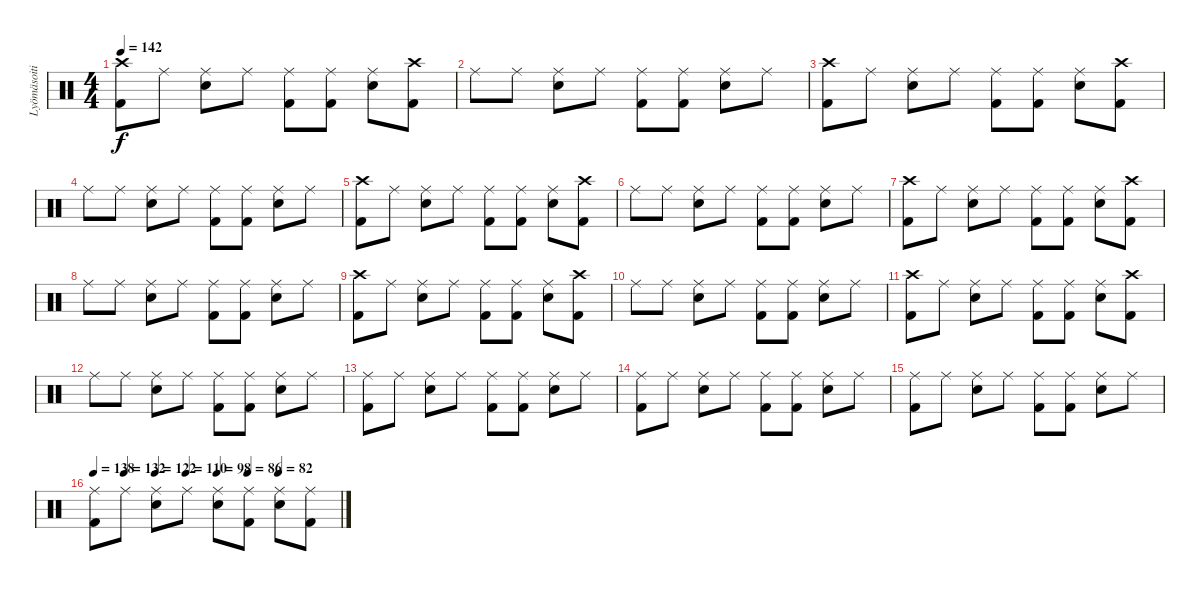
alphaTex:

\track ("Lyömäsoitin" "Lyömäsoiti") {instrument percussion}
\staff {score}
\articulation defaults
\ts (4 4)
\tempo 142
\clef neutral
\ks c
("Crash high (hit)" "Kick (hit) 2").8{dy f} "Ride (middle)".8 ("Ride (middle)" "Electric Snare (hit)").8 "Ride (middle)".8 ("Ride (middle)" "Kick (hit) 2").8 ("Ride (middle)" "Kick (hit) 2").8 ("Ride (middle)" "Electric Snare (hit)").8 ("Crash high (hit)" "Kick (hit) 2").8 |
"Ride (middle)".8 "Ride (middle)".8 ("Ride (middle)" "Electric Snare (hit)").8 "Ride (middle)".8 ("Ride (middle)" "Kick (hit) 2").8 ("Ride (middle)" "Kick (hit) 2").8 ("Ride (middle)" "Electric Snare (hit)").8 "Ride (middle)".8 |
("Crash high (hit)" "Kick (hit) 2").8 "Ride (middle)".8 ("Ride (middle)" "Electric Snare (hit)").8 "Ride (middle)".8 ("Ride (middle)" "Kick (hit) 2").8 ("Ride (middle)" "Kick (hit) 2").8 ("Ride (middle)" "Electric Snare (hit)").8 ("Crash high (hit)" "Kick (hit) 2").8 |
"Ride (middle)".8 "Ride (middle)".8 ("Ride (middle)" "Electric Snare (hit)").8 "Ride (middle)".8 ("Ride (middle)" "Kick (hit) 2").8 ("Ride (middle)" "Kick (hit) 2").8 ("Ride (middle)" "Electric Snare (hit)").8 "Ride (middle)".8 |
("Crash high (hit)" "Kick (hit) 2").8 "Ride (middle)".8 ("Ride (middle)" "Electric Snare (hit)").8 "Ride (middle)".8 ("Ride (middle)" "Kick (hit) 2").8 ("Ride (middle)" "Kick (hit) 2").8 ("Ride (middle)" "Electric Snare (hit)").8 ("Crash high (hit)" "Kick (hit) 2").8 |
"Ride (middle)".8 "Ride (middle)".8 ("Ride (middle)" "Electric Snare (hit)").8 "Ride (middle)".8 ("Ride (middle)" "Kick (hit) 2").8 ("Ride (middle)" "Kick (hit) 2").8 ("Ride (middle)" "Electric Snare (hit)").8 "Ride (middle)".8 |
("Crash high (hit)" "Kick (hit) 2").8 "Ride (middle)".8 ("Ride (middle)" "Electric Snare (hit)").8 "Ride (middle)".8 ("Ride (middle)" "Kick (hit) 2").8 ("Ride (middle)" "Kick (hit) 2").8 ("Ride (middle)" "Electric Snare (hit)").8 ("Crash high (hit)" "Kick (hit) 2").8 |
"Ride (middle)".8 "Ride (middle)".8 ("Ride (middle)" "Electric Snare (hit)").8 "Ride (middle)".8 ("Ride (middle)" "Kick (hit) 2").8 ("Ride (middle)" "Kick (hit) 2").8 ("Ride (middle)" "Electric Snare (hit)").8 "Ride (middle)".8 |
("Crash high (hit)" "Kick (hit) 2").8 "Ride (middle)".8 ("Ride (middle)" "Electric Snare (hit)").8 "Ride (middle)".8 ("Ride (middle)" "Kick (hit) 2").8 ("Ride (middle)" "Kick (hit) 2").8 ("Ride (middle)" "Electric Snare (hit)").8 ("Crash high (hit)" "Kick (hit) 2").8 |
"Ride (middle)".8 "Ride (middle)".8 ("Ride (middle)" "Electric Snare (hit)").8 "Ride (middle)".8 ("Ride (middle)" "Kick (hit) 2").8 ("Ride (middle)" "Kick (hit) 2").8 ("Ride (middle)" "Electric Snare (hit)").8 "Ride (middle)".8 |
("Crash high (hit)" "Kick (hit) 2").8 "Ride (middle)".8 ("Ride (middle)" "Electric Snare (hit)").8 "Ride (middle)".8 ("Ride (middle)" "Kick (hit) 2").8 ("Ride (middle)" "Kick (hit) 2").8 ("Ride (middle)" "Electric Snare (hit)").8 ("Crash high (hit)" "Kick (hit) 2").8 |
"Ride (middle)".8 "Ride (middle)".8 ("Ride (middle)" "Electric Snare (hit)").8 "Ride (middle)".8 ("Ride (middle)" "Kick (hit) 2").8 ("Ride (middle)" "Kick (hit) 2").8 ("Ride (middle)" "Electric Snare (hit)").8 "Ride (middle)".8 |
("Ride (middle)" "Kick (hit) 2").8 "Ride (middle)".8 ("Ride (middle)" "Electric Snare (hit)").8 "Ride (middle)".8 ("Ride (middle)" "Kick (hit) 2").8 ("Ride (middle)" "Kick (hit) 2").8 ("Ride (middle)" "Electric Snare (hit)").8 "Ride (middle)".8 |
("Ride (middle)" "Kick (hit) 2").8 "Ride (middle)".8 ("Ride (middle)" "Electric Snare (hit)").8 "Ride (middle)".8 ("Ride (middle)" "Kick (hit) 2").8 ("Ride (middle)" "Kick (hit) 2").8 ("Ride (middle)" "Electric Snare (hit)").8 "Ride (middle)".8 |
("Ride (middle)" "Kick (hit) 2").8 "Ride (middle)".8 ("Ride (middle)" "Electric Snare (hit)").8 "Ride (middle)".8 ("Ride (middle)" "Kick (hit) 2").8 ("Ride (middle)" "Kick (hit) 2").8 ("Ride (middle)" "Electric Snare (hit)").8 "Ride (middle)".8 |
\tempo 138
\tempo (132 0.125)
\tempo (122 0.25)
\tempo (110 0.375)
\tempo (98 0.5)
\tempo (86 0.625)
\tempo (82 0.75)
("Ride (middle)" "Kick (hit) 2").8 "Ride (middle)".8 ("Ride (middle)" "Electric Snare (hit)").8 "Ride (middle)".8 ("Ride (middle)" "Electric Snare (hit)").8 ("Ride (middle)" "Kick (hit) 2").8 ("Ride (middle)" "Electric Snare (hit)").8 ("Ride (middle)" "Kick (hit) 2").8
